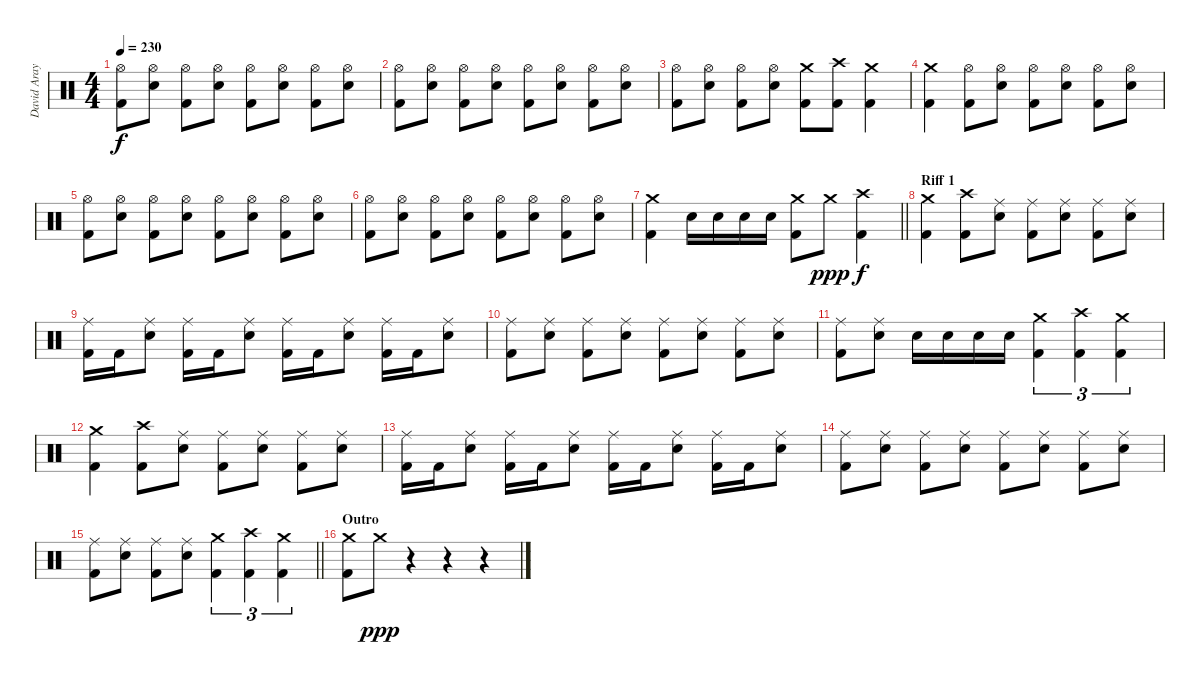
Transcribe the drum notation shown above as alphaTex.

\track ("David Araya" "David Aray") {instrument percussion}
\staff {score}
\articulation defaults
\ts (4 4)
\tempo 230
\clef neutral
\ks c
("Hi-Hat (open)" "Kick (hit) 2").8{dy f} ("Hi-Hat (open)" "Electric Snare (hit)").8 ("Hi-Hat (open)" "Kick (hit) 2").8 ("Hi-Hat (open)" "Electric Snare (hit)").8 ("Hi-Hat (open)" "Kick (hit) 2").8 ("Hi-Hat (open)" "Electric Snare (hit)").8 ("Hi-Hat (open)" "Kick (hit) 2").8 ("Hi-Hat (open)" "Electric Snare (hit)").8 |
("Hi-Hat (open)" "Kick (hit) 2").8 ("Hi-Hat (open)" "Electric Snare (hit)").8 ("Hi-Hat (open)" "Kick (hit) 2").8 ("Hi-Hat (open)" "Electric Snare (hit)").8 ("Hi-Hat (open)" "Kick (hit) 2").8 ("Hi-Hat (open)" "Electric Snare (hit)").8 ("Hi-Hat (open)" "Kick (hit) 2").8 ("Hi-Hat (open)" "Electric Snare (hit)").8 |
("Hi-Hat (open)" "Kick (hit) 2").8 ("Hi-Hat (open)" "Electric Snare (hit)").8 ("Hi-Hat (open)" "Kick (hit) 2").8 ("Hi-Hat (open)" "Electric Snare (hit)").8 ("Crash medium (hit)" "Kick (hit) 2").8 ("Crash high (hit)" "Kick (hit) 2").8 ("Crash medium (hit)" "Kick (hit) 2").4 |
("Crash medium (hit)" "Kick (hit) 2").4 ("Hi-Hat (open)" "Kick (hit) 2").8 ("Hi-Hat (open)" "Electric Snare (hit)").8 ("Hi-Hat (open)" "Kick (hit) 2").8 ("Hi-Hat (open)" "Electric Snare (hit)").8 ("Hi-Hat (open)" "Kick (hit) 2").8 ("Hi-Hat (open)" "Electric Snare (hit)").8 |
("Hi-Hat (open)" "Kick (hit) 2").8 ("Hi-Hat (open)" "Electric Snare (hit)").8 ("Hi-Hat (open)" "Kick (hit) 2").8 ("Hi-Hat (open)" "Electric Snare (hit)").8 ("Hi-Hat (open)" "Kick (hit) 2").8 ("Hi-Hat (open)" "Electric Snare (hit)").8 ("Hi-Hat (open)" "Kick (hit) 2").8 ("Hi-Hat (open)" "Electric Snare (hit)").8 |
("Hi-Hat (open)" "Kick (hit) 2").8 ("Hi-Hat (open)" "Electric Snare (hit)").8 ("Hi-Hat (open)" "Kick (hit) 2").8 ("Hi-Hat (open)" "Electric Snare (hit)").8 ("Hi-Hat (open)" "Kick (hit) 2").8 ("Hi-Hat (open)" "Electric Snare (hit)").8 ("Hi-Hat (open)" "Kick (hit) 2").8 ("Hi-Hat (open)" "Electric Snare (hit)").8 |
\barLineRight lightlight
("Crash medium (hit)" "Kick (hit) 2").4 "Electric Snare (hit)".16 "Electric Snare (hit)".16 "Electric Snare (hit)".16 "Electric Snare (hit)".16 ("Crash medium (hit)" "Kick (hit) 2").8 "Crash medium (hit)".8{dy ppp} ("Crash high (hit)" "Kick (hit) 2").4{dy f} |
\section ("" "Riff 1")
("Crash medium (hit)" "Kick (hit) 2").4 ("Crash high (hit)" "Kick (hit) 2").8 ("Ride (middle)" "Electric Snare (hit)").8 ("Ride (middle)" "Kick (hit) 2").8 ("Ride (middle)" "Electric Snare (hit)").8 ("Ride (middle)" "Kick (hit) 2").8 ("Ride (middle)" "Electric Snare (hit)").8 |
("Ride (middle)" "Kick (hit) 2").16 "Kick (hit) 2".16 ("Ride (middle)" "Electric Snare (hit)").8 ("Ride (middle)" "Kick (hit) 2").16 "Kick (hit) 2".16 ("Ride (middle)" "Electric Snare (hit)").8 ("Ride (middle)" "Kick (hit) 2").16 "Kick (hit) 2".16 ("Ride (middle)" "Electric Snare (hit)").8 ("Ride (middle)" "Kick (hit) 2").16 "Kick (hit) 2".16 ("Ride (middle)" "Electric Snare (hit)").8 |
("Ride (middle)" "Kick (hit) 2").8 ("Ride (middle)" "Electric Snare (hit)").8 ("Ride (middle)" "Kick (hit) 2").8 ("Ride (middle)" "Electric Snare (hit)").8 ("Ride (middle)" "Kick (hit) 2").8 ("Ride (middle)" "Electric Snare (hit)").8 ("Ride (middle)" "Kick (hit) 2").8 ("Ride (middle)" "Electric Snare (hit)").8 |
("Ride (middle)" "Kick (hit) 2").8 ("Ride (middle)" "Electric Snare (hit)").8 "Electric Snare (hit)".16 "Electric Snare (hit)".16 "Electric Snare (hit)".16 "Electric Snare (hit)".16 ("Crash medium (hit)" "Kick (hit) 2").4{tu (3 2)} ("Crash high (hit)" "Kick (hit) 2").4{tu (3 2)} ("Crash medium (hit)" "Kick (hit) 2").4{tu (3 2)} |
("Crash medium (hit)" "Kick (hit) 2").4 ("Crash high (hit)" "Kick (hit) 2").8 ("Ride (middle)" "Electric Snare (hit)").8 ("Ride (middle)" "Kick (hit) 2").8 ("Ride (middle)" "Electric Snare (hit)").8 ("Ride (middle)" "Kick (hit) 2").8 ("Ride (middle)" "Electric Snare (hit)").8 |
("Ride (middle)" "Kick (hit) 2").16 "Kick (hit) 2".16 ("Ride (middle)" "Electric Snare (hit)").8 ("Ride (middle)" "Kick (hit) 2").16 "Kick (hit) 2".16 ("Ride (middle)" "Electric Snare (hit)").8 ("Ride (middle)" "Kick (hit) 2").16 "Kick (hit) 2".16 ("Ride (middle)" "Electric Snare (hit)").8 ("Ride (middle)" "Kick (hit) 2").16 "Kick (hit) 2".16 ("Ride (middle)" "Electric Snare (hit)").8 |
("Ride (middle)" "Kick (hit) 2").8 ("Ride (middle)" "Electric Snare (hit)").8 ("Ride (middle)" "Kick (hit) 2").8 ("Ride (middle)" "Electric Snare (hit)").8 ("Ride (middle)" "Kick (hit) 2").8 ("Ride (middle)" "Electric Snare (hit)").8 ("Ride (middle)" "Kick (hit) 2").8 ("Ride (middle)" "Electric Snare (hit)").8 |
\barLineRight lightlight
("Ride (middle)" "Kick (hit) 2").8 ("Ride (middle)" "Electric Snare (hit)").8 ("Ride (middle)" "Kick (hit) 2").8 ("Ride (middle)" "Electric Snare (hit)").8 ("Crash medium (hit)" "Kick (hit) 2").4{tu (3 2)} ("Crash high (hit)" "Kick (hit) 2").4{tu (3 2)} ("Crash medium (hit)" "Kick (hit) 2").4{tu (3 2)} |
\section ("" "Outro")
("Crash medium (hit)" "Kick (hit) 2").8 "Crash medium (hit)".8{dy ppp} r.4 r.4 r.4
